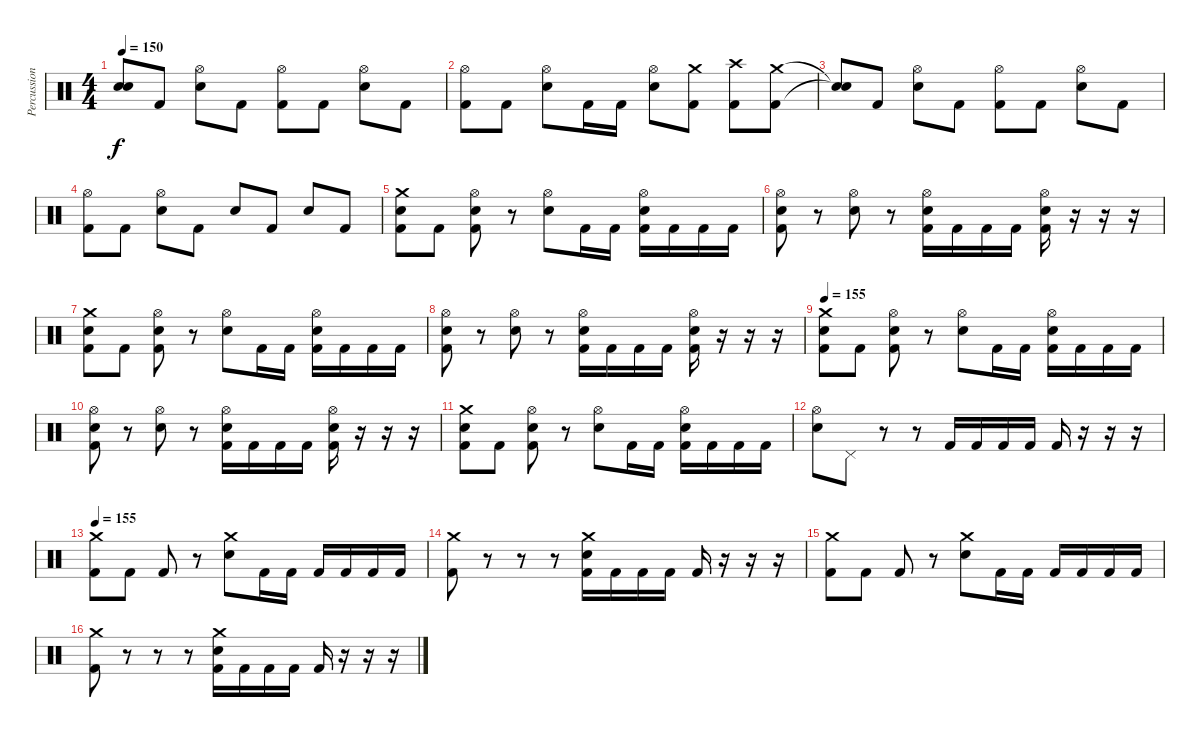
\track ("Percussion" "Percussion") {instrument percussion}
\staff {score}
\articulation defaults
\ts (4 4)
\tempo 150
\clef neutral
\ks c
("Snare (hit)"{t} "Snare (hit)"{t}).8{dy f} "Kick (hit) 2".8 ("Hi-Hat (open)" "Snare (hit) 2").8 "Kick (hit) 2".8 ("Hi-Hat (open)" "Kick (hit) 2").8 "Kick (hit) 2".8 ("Hi-Hat (open)" "Snare (hit) 2").8 "Kick (hit) 2".8 |
("Hi-Hat (open)" "Kick (hit) 2").8 "Kick (hit) 2".8 ("Hi-Hat (open)" "Snare (hit) 2").8 "Kick (hit) 2".16 "Kick (hit) 2".16 ("Hi-Hat (open)" "Snare (hit) 2").8 ("Crash medium (hit)" "Kick (hit) 2").8 ("Crash high (hit)" "Kick (hit) 2").8 ("Crash medium (hit)" "Kick (hit) 2").8 |
("Snare (hit)"{t} "Snare (hit)"{t}).8 "Kick (hit) 2".8 ("Hi-Hat (open)" "Snare (hit) 2").8 "Kick (hit) 2".8 ("Hi-Hat (open)" "Kick (hit) 2").8 "Kick (hit) 2".8 ("Hi-Hat (open)" "Snare (hit) 2").8 "Kick (hit) 2".8 |
("Hi-Hat (open)" "Kick (hit) 2").8 "Kick (hit) 2".8 ("Hi-Hat (open)" "Snare (hit) 2").8 "Kick (hit) 2".8 "Snare (hit) 2".8 "Kick (hit) 2".8 "Snare (hit) 2".8 "Kick (hit) 2".8 |
("Crash medium (hit)" "Snare (hit) 2" "Kick (hit) 2").8 "Kick (hit) 2".8 ("Hi-Hat (open)" "Snare (hit) 2" "Kick (hit) 2").8 r.8 ("Hi-Hat (open)" "Snare (hit) 2").8 "Kick (hit) 2".16 "Kick (hit) 2".16 ("Hi-Hat (open)" "Snare (hit) 2" "Kick (hit) 2").16 "Kick (hit) 2".16 "Kick (hit) 2".16 "Kick (hit) 2".16 |
("Hi-Hat (open)" "Snare (hit) 2" "Kick (hit) 2").8 r.8 ("Hi-Hat (open)" "Snare (hit) 2").8 r.8 ("Hi-Hat (open)" "Snare (hit) 2" "Kick (hit) 2").16 "Kick (hit) 2".16 "Kick (hit) 2".16 "Kick (hit) 2".16 ("Hi-Hat (open)" "Snare (hit) 2" "Kick (hit) 2").16 r.16 r.16 r.16 |
("Crash medium (hit)" "Snare (hit) 2" "Kick (hit) 2").8 "Kick (hit) 2".8 ("Hi-Hat (open)" "Snare (hit) 2" "Kick (hit) 2").8 r.8 ("Hi-Hat (open)" "Snare (hit) 2").8 "Kick (hit) 2".16 "Kick (hit) 2".16 ("Hi-Hat (open)" "Snare (hit) 2" "Kick (hit) 2").16 "Kick (hit) 2".16 "Kick (hit) 2".16 "Kick (hit) 2".16 |
("Hi-Hat (open)" "Snare (hit) 2" "Kick (hit) 2").8 r.8 ("Hi-Hat (open)" "Snare (hit) 2").8 r.8 ("Hi-Hat (open)" "Snare (hit) 2" "Kick (hit) 2").16 "Kick (hit) 2".16 "Kick (hit) 2".16 "Kick (hit) 2".16 ("Hi-Hat (open)" "Snare (hit) 2" "Kick (hit) 2").16 r.16 r.16 r.16 |
\tempo 155
("Crash medium (hit)" "Snare (hit) 2" "Kick (hit) 2").8 "Kick (hit) 2".8 ("Hi-Hat (open)" "Snare (hit) 2" "Kick (hit) 2").8 r.8 ("Hi-Hat (open)" "Snare (hit) 2").8 "Kick (hit) 2".16 "Kick (hit) 2".16 ("Hi-Hat (open)" "Snare (hit) 2" "Kick (hit) 2").16 "Kick (hit) 2".16 "Kick (hit) 2".16 "Kick (hit) 2".16 |
("Hi-Hat (open)" "Snare (hit) 2" "Kick (hit) 2").8 r.8 ("Hi-Hat (open)" "Snare (hit) 2").8 r.8 ("Hi-Hat (open)" "Snare (hit) 2" "Kick (hit) 2").16 "Kick (hit) 2".16 "Kick (hit) 2".16 "Kick (hit) 2".16 ("Hi-Hat (open)" "Snare (hit) 2" "Kick (hit) 2").16 r.16 r.16 r.16 |
("Crash medium (hit)" "Snare (hit) 2" "Kick (hit) 2").8 "Kick (hit) 2".8 ("Hi-Hat (open)" "Snare (hit) 2" "Kick (hit) 2").8 r.8 ("Hi-Hat (open)" "Snare (hit) 2").8 "Kick (hit) 2".16 "Kick (hit) 2".16 ("Hi-Hat (open)" "Snare (hit) 2" "Kick (hit) 2").16 "Kick (hit) 2".16 "Kick (hit) 2".16 "Kick (hit) 2".16 |
("Hi-Hat (open)" "Snare (hit) 2").8 "Pedal Hi-Hat (hit)".8 r.8 r.8 "Kick (hit) 2".16 "Kick (hit) 2".16 "Kick (hit) 2".16 "Kick (hit) 2".16 "Kick (hit) 2".16 r.16 r.16 r.16 |
\tempo 155
("Crash medium (hit)" "Kick (hit) 2").8 "Kick (hit) 2".8 "Kick (hit) 2".8 r.8 ("Crash medium (hit)" "Snare (hit) 2").8 "Kick (hit) 2".16 "Kick (hit) 2".16 "Kick (hit) 2".16 "Kick (hit) 2".16 "Kick (hit) 2".16 "Kick (hit) 2".16 |
("Crash medium (hit)" "Kick (hit) 2").8 r.8 r.8 r.8 ("Crash medium (hit)" "Snare (hit) 2" "Kick (hit) 2").16 "Kick (hit) 2".16 "Kick (hit) 2".16 "Kick (hit) 2".16 "Kick (hit) 2".16 r.16 r.16 r.16 |
("Crash medium (hit)" "Kick (hit) 2").8 "Kick (hit) 2".8 "Kick (hit) 2".8 r.8 ("Crash medium (hit)" "Snare (hit) 2").8 "Kick (hit) 2".16 "Kick (hit) 2".16 "Kick (hit) 2".16 "Kick (hit) 2".16 "Kick (hit) 2".16 "Kick (hit) 2".16 |
("Crash medium (hit)" "Kick (hit) 2").8 r.8 r.8 r.8 ("Crash medium (hit)" "Snare (hit) 2" "Kick (hit) 2").16 "Kick (hit) 2".16 "Kick (hit) 2".16 "Kick (hit) 2".16 "Kick (hit) 2".16 r.16 r.16 r.16
